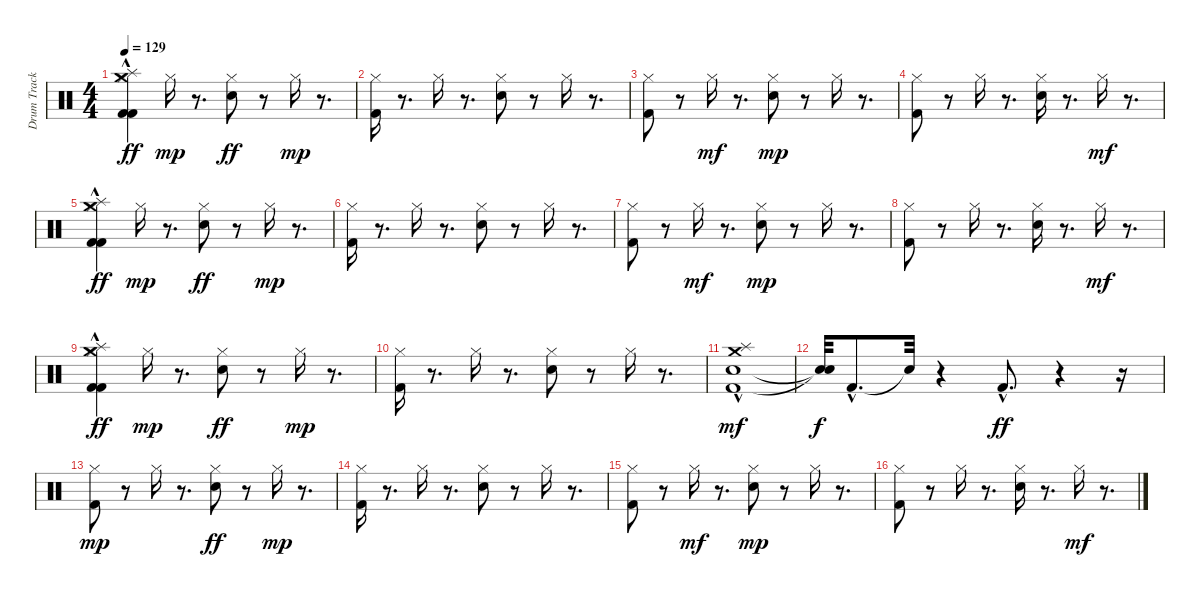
\track ("Drum Track 1" "Drum Track") {instrument percussion}
\staff {score}
\articulation defaults
\ts (4 4)
\tempo 129
\clef neutral
\ks c
("Kick (hit) 2" "Hi-Hat (closed)" "Crash medium (hit)"{hac} "Splash (hit)"{hac} "Kick (hit) 2"{hac}).4{dy ff} "Hi-Hat (closed)".16{dy mp} r.8{d} ("Hi-Hat (closed)" "Snare (hit) 2").8{dy ff} r.8 "Hi-Hat (closed)".16{dy mp} r.8{d} |
("Kick (hit) 2" "Hi-Hat (closed)").16 r.8{d} "Hi-Hat (closed)".16 r.8{d} ("Snare (hit) 2" "Hi-Hat (closed)").8 r.8 "Hi-Hat (closed)".16 r.8{d} |
("Kick (hit) 2" "Hi-Hat (closed)").8 r.8 "Hi-Hat (closed)".16{dy mf} r.8{d} ("Hi-Hat (closed)" "Snare (hit) 2").8{dy mp} r.8 "Hi-Hat (closed)".16 r.8{d} |
("Hi-Hat (closed)" "Kick (hit) 2").8 r.8 "Hi-Hat (closed)".16 r.8{d} ("Hi-Hat (closed)" "Snare (hit) 2").16 r.8{d} "Hi-Hat (closed)".16{dy mf} r.8{d} |
("Kick (hit) 2" "Hi-Hat (closed)" "Crash medium (hit)"{hac} "Splash (hit)"{hac} "Kick (hit) 2"{hac}).4{dy ff} "Hi-Hat (closed)".16{dy mp} r.8{d} ("Hi-Hat (closed)" "Snare (hit) 2").8{dy ff} r.8 "Hi-Hat (closed)".16{dy mp} r.8{d} |
("Kick (hit) 2" "Hi-Hat (closed)").16 r.8{d} "Hi-Hat (closed)".16 r.8{d} ("Snare (hit) 2" "Hi-Hat (closed)").8 r.8 "Hi-Hat (closed)".16 r.8{d} |
("Kick (hit) 2" "Hi-Hat (closed)").8 r.8 "Hi-Hat (closed)".16{dy mf} r.8{d} ("Hi-Hat (closed)" "Snare (hit) 2").8{dy mp} r.8 "Hi-Hat (closed)".16 r.8{d} |
("Hi-Hat (closed)" "Kick (hit) 2").8 r.8 "Hi-Hat (closed)".16 r.8{d} ("Hi-Hat (closed)" "Snare (hit) 2").16 r.8{d} "Hi-Hat (closed)".16{dy mf} r.8{d} |
("Kick (hit) 2" "Hi-Hat (closed)" "Crash medium (hit)"{hac} "Splash (hit)"{hac} "Kick (hit) 2"{hac}).4{dy ff} "Hi-Hat (closed)".16{dy mp} r.8{d} ("Hi-Hat (closed)" "Snare (hit) 2").8{dy ff} r.8 "Hi-Hat (closed)".16{dy mp} r.8{d} |
("Kick (hit) 2" "Hi-Hat (closed)").16 r.8{d} "Hi-Hat (closed)".16 r.8{d} ("Snare (hit) 2" "Hi-Hat (closed)").8 r.8 "Hi-Hat (closed)".16 r.8{d} |
("Kick (hit) 2"{hac} "Snare (hit) 2"{hac} "Crash medium (hit)" "Splash (hit)").1{dy mf} |
("Snare (hit)"{t} "Snare (hit)"{t}).32{dy f} "Kick (hit) 2"{hac}.8{d} "Snare (hit)"{t}.32 r.4 "Kick (hit) 2"{hac}.8{d dy ff} r.4 r.16 |
("Kick (hit) 2" "Hi-Hat (closed)").8{dy mp} r.8 "Hi-Hat (closed)".16 r.8{d} ("Hi-Hat (closed)" "Snare (hit) 2").8{dy ff} r.8 "Hi-Hat (closed)".16{dy mp} r.8{d} |
("Kick (hit) 2" "Hi-Hat (closed)").16 r.8{d} "Hi-Hat (closed)".16 r.8{d} ("Snare (hit) 2" "Hi-Hat (closed)").8 r.8 "Hi-Hat (closed)".16 r.8{d} |
("Kick (hit) 2" "Hi-Hat (closed)").8 r.8 "Hi-Hat (closed)".16{dy mf} r.8{d} ("Hi-Hat (closed)" "Snare (hit) 2").8{dy mp} r.8 "Hi-Hat (closed)".16 r.8{d} |
("Hi-Hat (closed)" "Kick (hit) 2").8 r.8 "Hi-Hat (closed)".16 r.8{d} ("Hi-Hat (closed)" "Snare (hit) 2").16 r.8{d} "Hi-Hat (closed)".16{dy mf} r.8{d}
